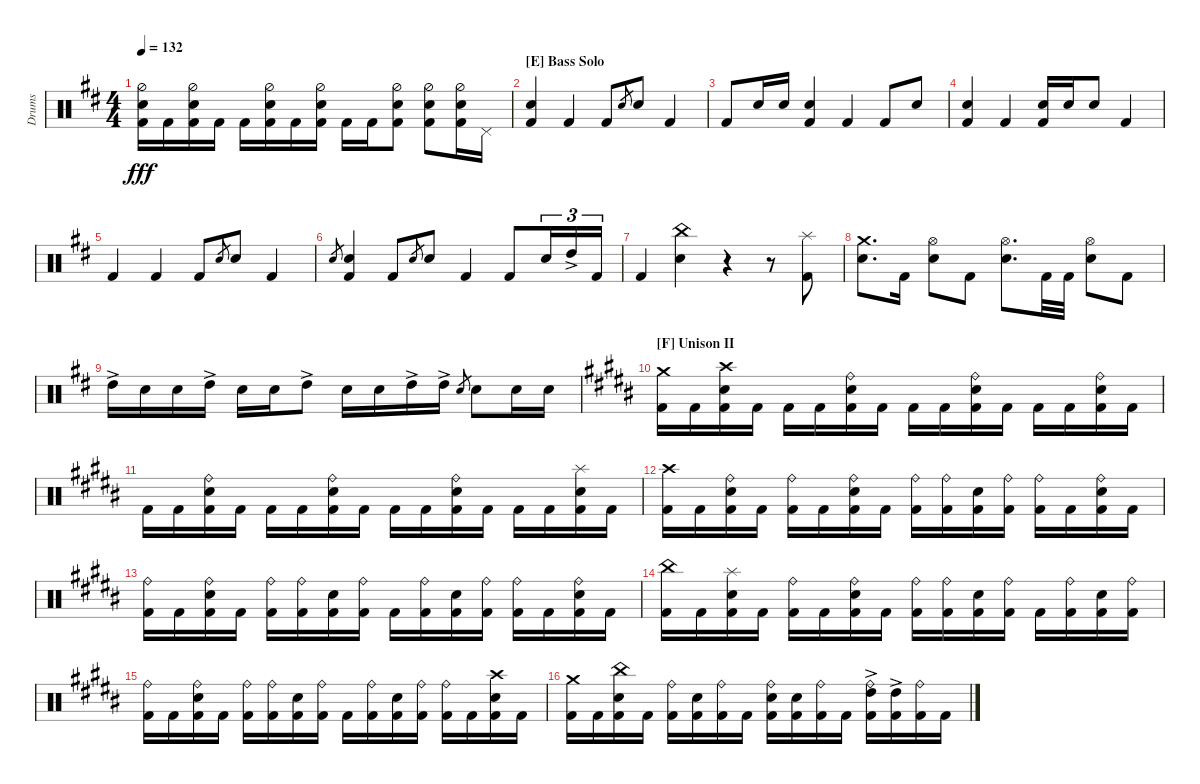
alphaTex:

\defaultSystemsLayout 4
\bracketExtendMode groupsimilarinstruments
\otherSystemsTrackNameOrientation horizontal
\track ("Drumkit" "Drums") {multiBarRest instrument percussion}
\staff {score}
\articulation defaults
\ts (4 4)
\tempo 132
\clef neutral
\ks d
("Kick (hit) 2"{acc forcenatural} "Snare (hit) 2"{acc forcenatural} "Hi-Hat (half)"{acc forcenatural}).16{dy fff} "Kick (hit) 2"{acc forcenatural}.16 ("Kick (hit) 2"{acc forcenatural} "Snare (hit) 2"{acc forcenatural} "Hi-Hat (half)"{acc forcenatural}).16 "Kick (hit) 2"{acc forcenatural}.16 "Kick (hit) 2"{acc forcenatural}.16 ("Kick (hit) 2"{acc forcenatural} "Snare (hit) 2"{acc forcenatural} "Hi-Hat (half)"{acc forcenatural}).16 "Kick (hit) 2"{acc forcenatural}.16 ("Kick (hit) 2"{acc forcenatural} "Snare (hit) 2"{acc forcenatural} "Hi-Hat (half)"{acc forcenatural}).16 "Kick (hit) 2"{acc forcenatural}.16 "Kick (hit) 2"{acc forcenatural}.16 ("Kick (hit) 2"{acc forcenatural} "Snare (hit) 2"{acc forcenatural} "Hi-Hat (half)"{acc forcenatural}).8 ("Kick (hit) 2"{acc forcenatural} "Snare (hit) 2"{acc forcenatural} "Hi-Hat (half)"{acc forcenatural}).8 ("Kick (hit) 2"{acc forcenatural} "Snare (hit) 2"{acc forcenatural} "Hi-Hat (half)"{acc forcenatural}).16 "Pedal Hi-Hat (hit)"{acc forcenatural}.16 |
\section ("E" "Bass Solo")
("Snare (hit) 2"{acc forcenatural} "Kick (hit) 2"{acc forcenatural}).4 "Kick (hit) 2"{acc forcenatural}.4 "Kick (hit) 2"{acc forcenatural}.8 "Snare (hit) 2"{acc forcenatural}.8{gr} "Snare (hit) 2"{acc forcenatural}.8 "Kick (hit) 2"{acc forcenatural}.4 |
"Kick (hit) 2"{acc forcenatural}.8 "Snare (hit) 2"{acc forcenatural}.16 "Snare (hit) 2"{acc forcenatural}.16 ("Kick (hit) 2"{acc forcenatural} "Snare (hit) 2"{acc forcenatural}).4 "Kick (hit) 2"{acc forcenatural}.4 "Kick (hit) 2"{acc forcenatural}.8 "Snare (hit) 2"{acc forcenatural}.8 |
("Kick (hit) 2"{acc forcenatural} "Snare (hit) 2"{acc forcenatural}).4 "Kick (hit) 2"{acc forcenatural}.4 ("Kick (hit) 2"{acc forcenatural} "Snare (hit) 2"{acc forcenatural}).16 "Snare (hit) 2"{acc forcenatural}.16 "Snare (hit) 2"{acc forcenatural}.8 "Kick (hit) 2"{acc forcenatural}.4 |
"Kick (hit) 2"{acc forcenatural}.4 "Kick (hit) 2"{acc forcenatural}.4 "Kick (hit) 2"{acc forcenatural}.8 "Snare (hit) 2"{acc forcenatural}.8{gr} "Snare (hit) 2"{acc forcenatural}.8 "Kick (hit) 2"{acc forcenatural}.4 |
"Snare (hit) 2"{acc forcenatural}.8{gr} ("Kick (hit) 2"{acc forcenatural} "Snare (hit) 2"{acc forcenatural}).4 "Kick (hit) 2"{acc forcenatural}.8 "Snare (hit) 2"{acc forcenatural}.8{gr} "Snare (hit) 2"{acc forcenatural}.8 "Kick (hit) 2"{acc forcenatural}.4 "Kick (hit) 2"{acc forcenatural}.8{beam merge} "Snare (hit) 2"{acc forcenatural}.16{tu (3 2)} "High Tom (hit)"{ac acc forcenatural}.16{tu (3 2)} "Kick (hit) 2"{acc forcenatural}.16{tu (3 2)} |
"Kick (hit) 2"{acc forcenatural}.4 ("Snare (hit) 2"{acc forcenatural} "China (hit)"{acc forcenatural}).4 r.4 r.8 ("Kick (hit) 2"{acc forcenatural} "Splash (hit)"{acc forcenatural}).8 |
("Crash medium (hit)"{acc forcenatural} "Snare (hit) 2"{acc forcenatural}).8{d} "Kick (hit) 2"{acc forcenatural}.16 ("Hi-Hat (open)"{acc forcenatural} "Snare (hit) 2"{acc forcenatural}).8 "Kick (hit) 2"{acc forcenatural}.8 ("Snare (hit) 2"{acc forcenatural} "Hi-Hat (open)"{acc forcenatural}).8{d} "Kick (hit) 2"{acc forcenatural}.32 "Kick (hit) 2"{acc forcenatural}.32 ("Hi-Hat (open)"{acc forcenatural} "Snare (hit) 2"{acc forcenatural}).8 "Kick (hit) 2"{acc forcenatural}.8 |
"High Tom (hit)"{ac acc forcenatural}.16 "Snare (hit) 2"{acc forcenatural}.16 "Snare (hit) 2"{acc forcenatural}.16 "High Tom (hit)"{ac acc forcenatural}.16 "Snare (hit) 2"{acc forcenatural}.16 "Snare (hit) 2"{acc forcenatural}.16 "High Tom (hit)"{ac acc forcenatural}.8 "Snare (hit) 2"{acc forcenatural}.16 "Snare (hit) 2"{acc forcenatural}.16 "High Tom (hit)"{ac acc forcenatural}.16 "High Tom (hit)"{ac acc forcenatural}.16 "Snare (hit) 2"{acc forcenatural}.8{gr} "Snare (hit) 2"{acc forcenatural}.8 "Snare (hit) 2"{acc forcenatural}.16 "Snare (hit) 2"{acc forcenatural}.16 |
\section ("F" "Unison II")
\ks b
("Kick (hit) 2"{acc forcenatural} "Crash medium (hit)"{acc forcenatural}).16 "Kick (hit) 2"{acc forcenatural}.16 ("Kick (hit) 2"{acc forcenatural} "Snare (hit) 2"{acc forcenatural} "Crash high (hit)"{acc forcenatural}).16 "Kick (hit) 2"{acc forcenatural}.16 "Kick (hit) 2"{acc forcenatural}.16 "Kick (hit) 2"{acc forcenatural}.16 ("Kick (hit) 2"{acc forcenatural} "Snare (hit) 2"{acc forcenatural} "Ride (bell)"{acc forcenatural}).16 "Kick (hit) 2"{acc forcenatural}.16 "Kick (hit) 2"{acc forcenatural}.16 "Kick (hit) 2"{acc forcenatural}.16 ("Kick (hit) 2"{acc forcenatural} "Snare (hit) 2"{acc forcenatural} "Ride (bell)"{acc forcenatural}).16 "Kick (hit) 2"{acc forcenatural}.16 "Kick (hit) 2"{acc forcenatural}.16 "Kick (hit) 2"{acc forcenatural}.16 ("Kick (hit) 2"{acc forcenatural} "Snare (hit) 2"{acc forcenatural} "Ride (bell)"{acc forcenatural}).16 "Kick (hit) 2"{acc forcenatural}.16 |
"Kick (hit) 2"{acc forcenatural}.16 "Kick (hit) 2"{acc forcenatural}.16 ("Kick (hit) 2"{acc forcenatural} "Snare (hit) 2"{acc forcenatural} "Ride (bell)"{acc forcenatural}).16 "Kick (hit) 2"{acc forcenatural}.16 "Kick (hit) 2"{acc forcenatural}.16 "Kick (hit) 2"{acc forcenatural}.16 ("Kick (hit) 2"{acc forcenatural} "Snare (hit) 2"{acc forcenatural} "Ride (bell)"{acc forcenatural}).16 "Kick (hit) 2"{acc forcenatural}.16 "Kick (hit) 2"{acc forcenatural}.16 "Kick (hit) 2"{acc forcenatural}.16 ("Kick (hit) 2"{acc forcenatural} "Snare (hit) 2"{acc forcenatural} "Ride (bell)"{acc forcenatural}).16 "Kick (hit) 2"{acc forcenatural}.16 "Kick (hit) 2"{acc forcenatural}.16 "Kick (hit) 2"{acc forcenatural}.16 ("Kick (hit) 2"{acc forcenatural} "Snare (hit) 2"{acc forcenatural} "Splash (hit)"{acc forcenatural}).16 "Kick (hit) 2"{acc forcenatural}.16 |
("Kick (hit) 2"{acc forcenatural} "Crash high (hit)"{acc forcenatural}).16 "Kick (hit) 2"{acc forcenatural}.16 ("Kick (hit) 2"{acc forcenatural} "Snare (hit) 2"{acc forcenatural} "Ride (bell)"{acc forcenatural}).16 "Kick (hit) 2"{acc forcenatural}.16 ("Kick (hit) 2"{acc forcenatural} "Ride (bell)"{acc forcenatural}).16 "Kick (hit) 2"{acc forcenatural}.16 ("Kick (hit) 2"{acc forcenatural} "Snare (hit) 2"{acc forcenatural} "Ride (bell)"{acc forcenatural}).16 "Kick (hit) 2"{acc forcenatural}.16 ("Kick (hit) 2"{acc forcenatural} "Ride (bell)"{acc forcenatural}).16 ("Kick (hit) 2"{acc forcenatural} "Ride (bell)"{acc forcenatural}).16 ("Kick (hit) 2"{acc forcenatural} "Snare (hit) 2"{acc forcenatural}).16 ("Kick (hit) 2"{acc forcenatural} "Ride (bell)"{acc forcenatural}).16 ("Kick (hit) 2"{acc forcenatural} "Ride (bell)"{acc forcenatural}).16 "Kick (hit) 2"{acc forcenatural}.16 ("Kick (hit) 2"{acc forcenatural} "Snare (hit) 2"{acc forcenatural} "Ride (bell)"{acc forcenatural}).16 "Kick (hit) 2"{acc forcenatural}.16 |
("Kick (hit) 2"{acc forcenatural} "Ride (bell)"{acc forcenatural}).16 "Kick (hit) 2"{acc forcenatural}.16 ("Kick (hit) 2"{acc forcenatural} "Snare (hit) 2"{acc forcenatural} "Ride (bell)"{acc forcenatural}).16 "Kick (hit) 2"{acc forcenatural}.16 ("Kick (hit) 2"{acc forcenatural} "Ride (bell)"{acc forcenatural}).16 ("Kick (hit) 2"{acc forcenatural} "Ride (bell)"{acc forcenatural}).16 ("Kick (hit) 2"{acc forcenatural} "Snare (hit) 2"{acc forcenatural}).16 ("Kick (hit) 2"{acc forcenatural} "Ride (bell)"{acc forcenatural}).16 "Kick (hit) 2"{acc forcenatural}.16 ("Kick (hit) 2"{acc forcenatural} "Ride (bell)"{acc forcenatural}).16 ("Kick (hit) 2"{acc forcenatural} "Snare (hit) 2"{acc forcenatural}).16 ("Kick (hit) 2"{acc forcenatural} "Ride (bell)"{acc forcenatural}).16 ("Kick (hit) 2"{acc forcenatural} "Ride (bell)"{acc forcenatural}).16 "Kick (hit) 2"{acc forcenatural}.16 ("Kick (hit) 2"{acc forcenatural} "Snare (hit) 2"{acc forcenatural} "Ride (bell)"{acc forcenatural}).16 "Kick (hit) 2"{acc forcenatural}.16 |
("Kick (hit) 2"{acc forcenatural} "China (hit)"{acc forcenatural}).16 "Kick (hit) 2"{acc forcenatural}.16 ("Kick (hit) 2"{acc forcenatural} "Snare (hit) 2"{acc forcenatural} "Splash (hit)"{acc forcenatural}).16 "Kick (hit) 2"{acc forcenatural}.16 ("Kick (hit) 2"{acc forcenatural} "Ride (bell)"{acc forcenatural}).16 "Kick (hit) 2"{acc forcenatural}.16 ("Kick (hit) 2"{acc forcenatural} "Snare (hit) 2"{acc forcenatural} "Ride (bell)"{acc forcenatural}).16 "Kick (hit) 2"{acc forcenatural}.16 ("Kick (hit) 2"{acc forcenatural} "Ride (bell)"{acc forcenatural}).16 ("Kick (hit) 2"{acc forcenatural} "Ride (bell)"{acc forcenatural}).16 ("Kick (hit) 2"{acc forcenatural} "Snare (hit) 2"{acc forcenatural}).16 ("Kick (hit) 2"{acc forcenatural} "Ride (bell)"{acc forcenatural}).16 "Kick (hit) 2"{acc forcenatural}.16 ("Kick (hit) 2"{acc forcenatural} "Ride (bell)"{acc forcenatural}).16 ("Kick (hit) 2"{acc forcenatural} "Snare (hit) 2"{acc forcenatural}).16 ("Kick (hit) 2"{acc forcenatural} "Ride (bell)"{acc forcenatural}).16 |
("Kick (hit) 2"{acc forcenatural} "Ride (bell)"{acc forcenatural}).16 "Kick (hit) 2"{acc forcenatural}.16 ("Kick (hit) 2"{acc forcenatural} "Snare (hit) 2"{acc forcenatural} "Ride (bell)"{acc forcenatural}).16 "Kick (hit) 2"{acc forcenatural}.16 ("Kick (hit) 2"{acc forcenatural} "Ride (bell)"{acc forcenatural}).16 ("Kick (hit) 2"{acc forcenatural} "Ride (bell)"{acc forcenatural}).16 ("Kick (hit) 2"{acc forcenatural} "Snare (hit) 2"{acc forcenatural}).16 ("Kick (hit) 2"{acc forcenatural} "Ride (bell)"{acc forcenatural}).16 "Kick (hit) 2"{acc forcenatural}.16 ("Kick (hit) 2"{acc forcenatural} "Ride (bell)"{acc forcenatural}).16 ("Kick (hit) 2"{acc forcenatural} "Snare (hit) 2"{acc forcenatural}).16 ("Kick (hit) 2"{acc forcenatural} "Ride (bell)"{acc forcenatural}).16 ("Kick (hit) 2"{acc forcenatural} "Ride (bell)"{acc forcenatural}).16 "Kick (hit) 2"{acc forcenatural}.16 ("Kick (hit) 2"{acc forcenatural} "Snare (hit) 2"{acc forcenatural} "Crash high (hit)"{acc forcenatural}).16 "Kick (hit) 2"{acc forcenatural}.16 |
("Kick (hit) 2"{acc forcenatural} "Crash medium (hit)"{acc forcenatural}).16 "Kick (hit) 2"{acc forcenatural}.16 ("Kick (hit) 2"{acc forcenatural} "Snare (hit) 2"{acc forcenatural} "China (hit)"{acc forcenatural}).16 "Kick (hit) 2"{acc forcenatural}.16 ("Kick (hit) 2"{acc forcenatural} "Ride (bell)"{acc forcenatural}).16 ("Kick (hit) 2"{acc forcenatural} "Snare (hit) 2"{acc forcenatural}).16 ("Kick (hit) 2"{acc forcenatural} "Ride (bell)"{acc forcenatural}).16 "Kick (hit) 2"{acc forcenatural}.16 ("Kick (hit) 2"{acc forcenatural} "Ride (bell)"{acc forcenatural} "Snare (hit) 2"{acc forcenatural}).16 ("Kick (hit) 2"{acc forcenatural} "Snare (hit) 2"{acc forcenatural}).16 ("Kick (hit) 2"{acc forcenatural} "Ride (bell)"{acc forcenatural}).16 "Kick (hit) 2"{acc forcenatural}.16 ("Kick (hit) 2"{acc forcenatural} "Ride (bell)"{acc forcenatural} "High Tom (hit)"{ac acc forcenatural}).16 ("Kick (hit) 2"{acc forcenatural} "High Tom (hit)"{ac acc forcenatural}).16 ("Kick (hit) 2"{acc forcenatural} "Ride (bell)"{acc forcenatural}).16 "Kick (hit) 2"{acc forcenatural}.16
